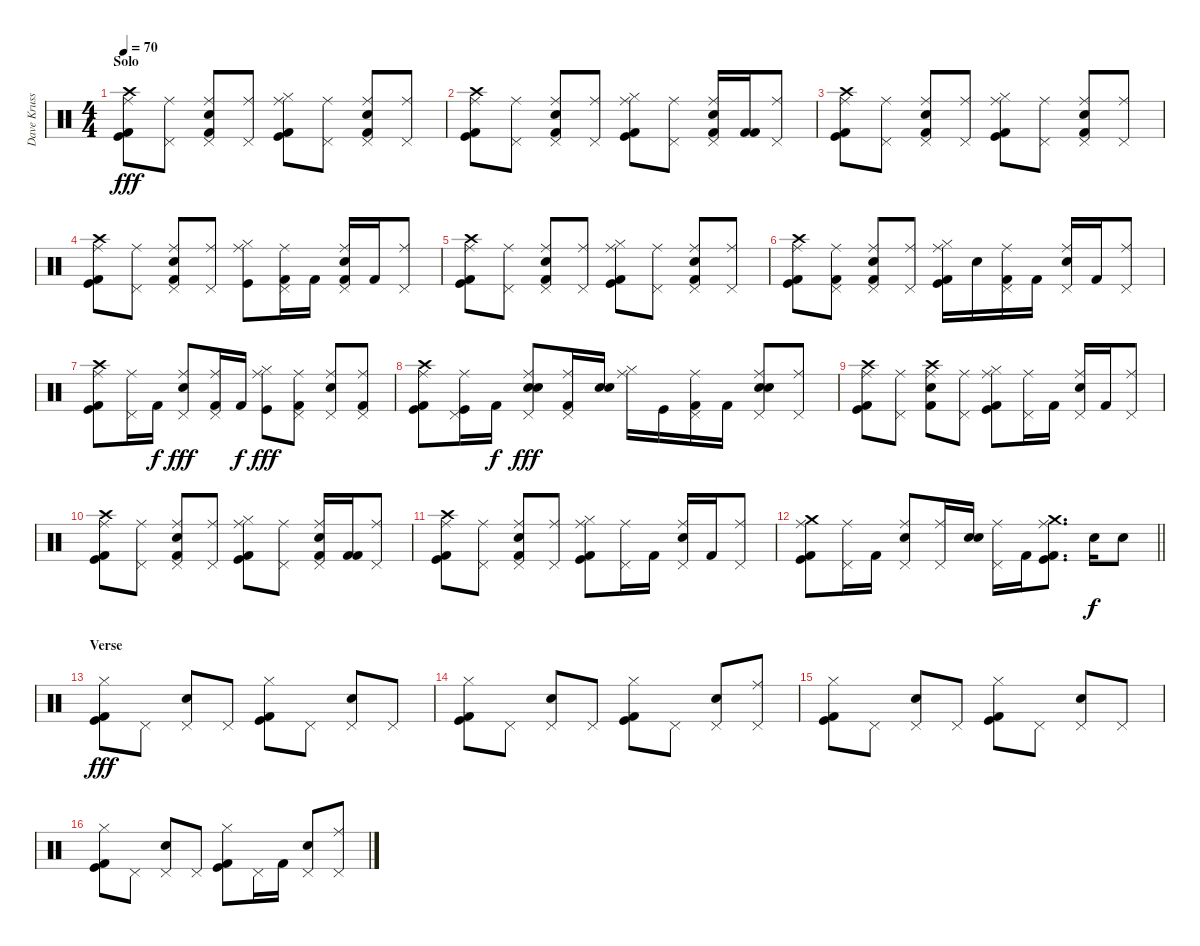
\track ("Dave Krussen" "Dave Kruss") {instrument percussion}
\staff {score}
\articulation defaults
\ts (4 4)
\section ("" "Solo")
\tempo 70
\clef neutral
\ks c
("Crash high (hit)" "Kick (hit)" "Ride (middle)" "Kick (hit) 2").8{dy fff} ("Pedal Hi-Hat (hit)" "Ride (middle)").8 ("Electric Snare (hit)" "Pedal Hi-Hat (hit)" "Ride (middle)" "Kick (hit) 2").8 ("Pedal Hi-Hat (hit)" "Ride (middle)").8 ("Kick (hit)" "Hi-Hat (closed)" "Ride (middle)" "Kick (hit) 2").8 ("Pedal Hi-Hat (hit)" "Ride (middle)").8 ("Electric Snare (hit)" "Pedal Hi-Hat (hit)" "Ride (middle)" "Kick (hit) 2").8 ("Ride (middle)" "Pedal Hi-Hat (hit)").8 |
("Crash high (hit)" "Kick (hit)" "Ride (middle)" "Kick (hit) 2").8 ("Pedal Hi-Hat (hit)" "Ride (middle)").8 ("Electric Snare (hit)" "Pedal Hi-Hat (hit)" "Ride (middle)" "Kick (hit) 2").8 ("Pedal Hi-Hat (hit)" "Ride (middle)").8 ("Kick (hit)" "Hi-Hat (closed)" "Ride (middle)" "Kick (hit) 2").8 ("Pedal Hi-Hat (hit)" "Ride (middle)").8 ("Electric Snare (hit)" "Pedal Hi-Hat (hit)" "Ride (middle)" "Kick (hit) 2").16 ("Kick (hit) 2" "Kick (hit) 2").16 ("Ride (middle)" "Pedal Hi-Hat (hit)").8 |
("Crash high (hit)" "Kick (hit)" "Ride (middle)" "Kick (hit) 2").8 ("Pedal Hi-Hat (hit)" "Ride (middle)").8 ("Electric Snare (hit)" "Pedal Hi-Hat (hit)" "Ride (middle)" "Kick (hit) 2").8 ("Pedal Hi-Hat (hit)" "Ride (middle)").8 ("Kick (hit)" "Hi-Hat (closed)" "Ride (middle)" "Kick (hit) 2").8 ("Pedal Hi-Hat (hit)" "Ride (middle)").8 ("Electric Snare (hit)" "Pedal Hi-Hat (hit)" "Ride (middle)" "Kick (hit) 2").8 ("Ride (middle)" "Pedal Hi-Hat (hit)").8 |
("Crash high (hit)" "Kick (hit)" "Ride (middle)" "Kick (hit) 2").8 ("Pedal Hi-Hat (hit)" "Ride (middle)").8 ("Electric Snare (hit)" "Pedal Hi-Hat (hit)" "Ride (middle)" "Kick (hit) 2").8 ("Pedal Hi-Hat (hit)" "Ride (middle)").8 ("Kick (hit)" "Hi-Hat (closed)" "Ride (middle)").8 ("Pedal Hi-Hat (hit)" "Ride (middle)" "Kick (hit) 2").16 "Kick (hit) 2".16 ("Electric Snare (hit)" "Pedal Hi-Hat (hit)" "Ride (middle)" "Kick (hit) 2").16 "Kick (hit) 2".16 ("Ride (middle)" "Pedal Hi-Hat (hit)").8 |
("Crash high (hit)" "Kick (hit)" "Ride (middle)" "Kick (hit) 2").8 ("Pedal Hi-Hat (hit)" "Ride (middle)").8 ("Electric Snare (hit)" "Pedal Hi-Hat (hit)" "Ride (middle)" "Kick (hit) 2").8 ("Pedal Hi-Hat (hit)" "Ride (middle)").8 ("Kick (hit)" "Hi-Hat (closed)" "Ride (middle)" "Kick (hit) 2").8 ("Pedal Hi-Hat (hit)" "Ride (middle)").8 ("Electric Snare (hit)" "Pedal Hi-Hat (hit)" "Ride (middle)" "Kick (hit) 2").8 ("Ride (middle)" "Pedal Hi-Hat (hit)").8 |
("Crash high (hit)" "Kick (hit)" "Ride (middle)" "Kick (hit) 2").8 ("Pedal Hi-Hat (hit)" "Ride (middle)" "Kick (hit) 2").8 ("Electric Snare (hit)" "Pedal Hi-Hat (hit)" "Ride (middle)" "Kick (hit) 2").8 ("Pedal Hi-Hat (hit)" "Ride (middle)").8 ("Kick (hit)" "Hi-Hat (closed)" "Ride (middle)" "Kick (hit) 2").16 "Electric Snare (hit)".16 ("Pedal Hi-Hat (hit)" "Ride (middle)" "Kick (hit) 2").16 "Kick (hit) 2".16 ("Electric Snare (hit)" "Pedal Hi-Hat (hit)" "Ride (middle)").16 "Kick (hit) 2".16 ("Ride (middle)" "Pedal Hi-Hat (hit)").8 |
("Crash high (hit)" "Kick (hit)" "Ride (middle)" "Kick (hit) 2").8 ("Pedal Hi-Hat (hit)" "Ride (middle)").16 "Kick (hit) 2".16{dy f} ("Electric Snare (hit)" "Pedal Hi-Hat (hit)" "Ride (middle)").8{dy fff} ("Pedal Hi-Hat (hit)" "Ride (middle)" "Kick (hit) 2").16 "Kick (hit) 2".16{dy f} ("Kick (hit)" "Hi-Hat (closed)" "Ride (middle)").8{dy fff} ("Pedal Hi-Hat (hit)" "Ride (middle)" "Kick (hit) 2").8 ("Electric Snare (hit)" "Pedal Hi-Hat (hit)" "Ride (middle)").8 ("Ride (middle)" "Pedal Hi-Hat (hit)" "Kick (hit) 2").8 |
("Crash high (hit)" "Kick (hit)" "Ride (middle)" "Kick (hit) 2").8 ("Kick (hit)" "Pedal Hi-Hat (hit)" "Ride (middle)").16 "Kick (hit) 2".16{dy f} ("Electric Snare (hit)" "Electric Snare (hit)" "Pedal Hi-Hat (hit)" "Ride (middle)").8{bd 60 dy fff} ("Pedal Hi-Hat (hit)" "Ride (middle)" "Kick (hit) 2").16 ("Electric Snare (hit)" "Electric Snare (hit)").16{bd 120} ("Hi-Hat (closed)" "Ride (middle)").16 "Kick (hit)".16 ("Pedal Hi-Hat (hit)" "Ride (middle)" "Kick (hit) 2").16 "Kick (hit) 2".16 ("Electric Snare (hit)" "Electric Snare (hit)" "Pedal Hi-Hat (hit)" "Ride (middle)").8{bd 120} ("Ride (middle)" "Pedal Hi-Hat (hit)").8 |
("Crash high (hit)" "Kick (hit)" "Ride (middle)" "Kick (hit) 2").8 ("Pedal Hi-Hat (hit)" "Ride (middle)").8 ("Crash high (hit)" "Electric Snare (hit)" "Ride (middle)" "Kick (hit) 2").8 ("Pedal Hi-Hat (hit)" "Ride (middle)").8 ("Kick (hit)" "Hi-Hat (closed)" "Ride (middle)" "Kick (hit) 2").8 ("Pedal Hi-Hat (hit)" "Ride (middle)").16 "Kick (hit) 2".16 ("Electric Snare (hit)" "Pedal Hi-Hat (hit)" "Ride (middle)").16 "Kick (hit) 2".16 ("Ride (middle)" "Pedal Hi-Hat (hit)").8 |
("Crash high (hit)" "Kick (hit)" "Ride (middle)" "Kick (hit) 2").8 ("Pedal Hi-Hat (hit)" "Ride (middle)").8 ("Electric Snare (hit)" "Pedal Hi-Hat (hit)" "Ride (middle)" "Kick (hit) 2").8 ("Pedal Hi-Hat (hit)" "Ride (middle)").8 ("Kick (hit)" "Hi-Hat (closed)" "Ride (middle)" "Kick (hit) 2").8 ("Pedal Hi-Hat (hit)" "Ride (middle)").8 ("Electric Snare (hit)" "Pedal Hi-Hat (hit)" "Ride (middle)" "Kick (hit) 2").16 ("Kick (hit) 2" "Kick (hit) 2").16 ("Ride (middle)" "Pedal Hi-Hat (hit)").8 |
("Crash high (hit)" "Kick (hit)" "Ride (middle)" "Kick (hit) 2").8 ("Pedal Hi-Hat (hit)" "Ride (middle)").8 ("Electric Snare (hit)" "Pedal Hi-Hat (hit)" "Ride (middle)" "Kick (hit) 2").8 ("Pedal Hi-Hat (hit)" "Ride (middle)").8 ("Kick (hit)" "Hi-Hat (closed)" "Ride (middle)" "Kick (hit) 2").8 ("Pedal Hi-Hat (hit)" "Ride (middle)").16 "Kick (hit) 2".16 ("Electric Snare (hit)" "Pedal Hi-Hat (hit)" "Ride (middle)").16 "Kick (hit) 2".16 ("Ride (middle)" "Pedal Hi-Hat (hit)").8 |
\barLineRight lightlight
("Crash medium (hit)" "Kick (hit)" "Ride (middle)" "Kick (hit) 2").8 ("Pedal Hi-Hat (hit)" "Ride (middle)").16 "Kick (hit) 2".16 ("Electric Snare (hit)" "Pedal Hi-Hat (hit)" "Ride (middle)").8 ("Pedal Hi-Hat (hit)" "Ride (middle)").16 ("Electric Snare (hit)" "Electric Snare (hit)").16{bd 120} ("Pedal Hi-Hat (hit)" "Ride (middle)").16 "Kick (hit) 2".16 ("Crash medium (hit)" "Kick (hit)" "Ride (middle)" "Kick (hit) 2").8{d} "Electric Snare (hit)".16{dy f} "Electric Snare (hit)".8 |
\section ("" "Verse")
("Kick (hit)" "Hi-Hat (closed)" "Kick (hit) 2").8{dy fff} "Pedal Hi-Hat (hit)".8 ("Electric Snare (hit)" "Pedal Hi-Hat (hit)").8 "Pedal Hi-Hat (hit)".8 ("Kick (hit)" "Hi-Hat (closed)" "Kick (hit) 2").8 "Pedal Hi-Hat (hit)".8 ("Electric Snare (hit)" "Pedal Hi-Hat (hit)").8 "Pedal Hi-Hat (hit)".8 |
("Kick (hit)" "Hi-Hat (closed)" "Kick (hit) 2").8 "Pedal Hi-Hat (hit)".8 ("Electric Snare (hit)" "Pedal Hi-Hat (hit)").8 "Pedal Hi-Hat (hit)".8 ("Kick (hit)" "Hi-Hat (closed)" "Kick (hit) 2").8 "Pedal Hi-Hat (hit)".8 ("Electric Snare (hit)" "Pedal Hi-Hat (hit)").8 ("Ride (middle)" "Pedal Hi-Hat (hit)").8 |
("Kick (hit)" "Hi-Hat (closed)" "Kick (hit) 2").8 "Pedal Hi-Hat (hit)".8 ("Electric Snare (hit)" "Pedal Hi-Hat (hit)").8 "Pedal Hi-Hat (hit)".8 ("Kick (hit)" "Hi-Hat (closed)" "Kick (hit) 2").8 "Pedal Hi-Hat (hit)".8 ("Electric Snare (hit)" "Pedal Hi-Hat (hit)").8 "Pedal Hi-Hat (hit)".8 |
("Kick (hit)" "Hi-Hat (closed)" "Kick (hit) 2").8 "Pedal Hi-Hat (hit)".8 ("Electric Snare (hit)" "Pedal Hi-Hat (hit)").8 "Pedal Hi-Hat (hit)".8 ("Kick (hit)" "Hi-Hat (closed)" "Kick (hit) 2").8 "Pedal Hi-Hat (hit)".16 "Kick (hit) 2".16 ("Electric Snare (hit)" "Pedal Hi-Hat (hit)").8 ("Ride (middle)" "Pedal Hi-Hat (hit)").8
